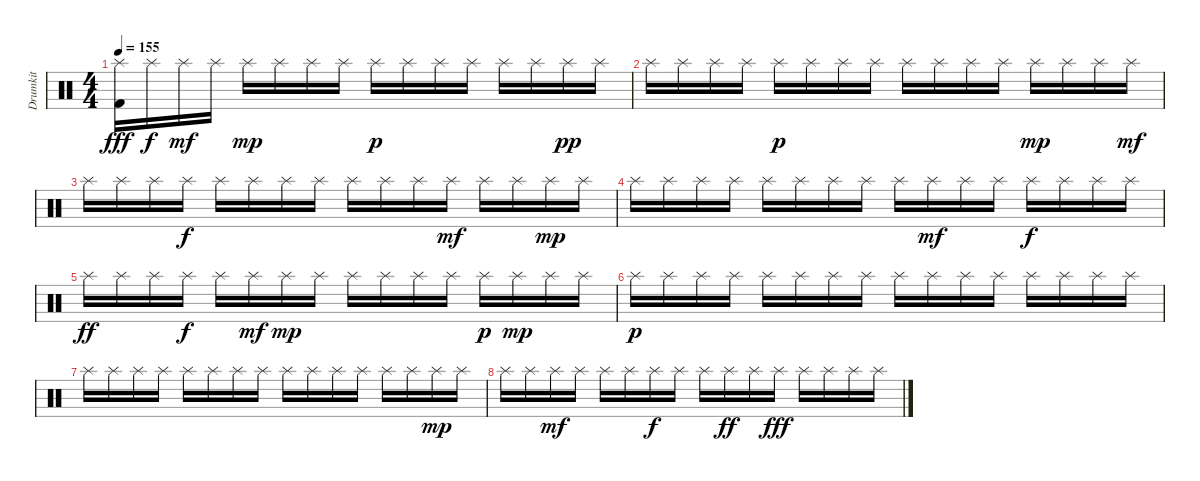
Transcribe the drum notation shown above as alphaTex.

\track ("Drumkit" "Drumkit") {instrument percussion}
\staff {score}
\articulation defaults
\ts (4 4)
\tempo 155
\clef neutral
\ks c
("Kick (hit) 2" "Splash (hit)").16{dy fff} "Splash (hit)".16{dy f} "Splash (hit)".16{dy mf} "Splash (hit)".16 "Splash (hit)".16{dy mp} "Splash (hit)".16 "Splash (hit)".16 "Splash (hit)".16 "Splash (hit)".16{dy p} "Splash (hit)".16 "Splash (hit)".16 "Splash (hit)".16 "Splash (hit)".16 "Splash (hit)".16 "Splash (hit)".16{dy pp} "Splash (hit)".16 |
"Splash (hit)".16 "Splash (hit)".16 "Splash (hit)".16 "Splash (hit)".16 "Splash (hit)".16{dy p} "Splash (hit)".16 "Splash (hit)".16 "Splash (hit)".16 "Splash (hit)".16 "Splash (hit)".16 "Splash (hit)".16 "Splash (hit)".16 "Splash (hit)".16{dy mp} "Splash (hit)".16 "Splash (hit)".16 "Splash (hit)".16{dy mf} |
"Splash (hit)".16 "Splash (hit)".16 "Splash (hit)".16 "Splash (hit)".16{dy f} "Splash (hit)".16 "Splash (hit)".16 "Splash (hit)".16 "Splash (hit)".16 "Splash (hit)".16 "Splash (hit)".16 "Splash (hit)".16 "Splash (hit)".16{dy mf} "Splash (hit)".16 "Splash (hit)".16 "Splash (hit)".16{dy mp} "Splash (hit)".16 |
"Splash (hit)".16 "Splash (hit)".16 "Splash (hit)".16 "Splash (hit)".16 "Splash (hit)".16 "Splash (hit)".16 "Splash (hit)".16 "Splash (hit)".16 "Splash (hit)".16 "Splash (hit)".16{dy mf} "Splash (hit)".16 "Splash (hit)".16 "Splash (hit)".16{dy f} "Splash (hit)".16 "Splash (hit)".16 "Splash (hit)".16 |
"Splash (hit)".16{dy ff} "Splash (hit)".16 "Splash (hit)".16 "Splash (hit)".16{dy f} "Splash (hit)".16 "Splash (hit)".16{dy mf} "Splash (hit)".16{dy mp} "Splash (hit)".16 "Splash (hit)".16 "Splash (hit)".16 "Splash (hit)".16 "Splash (hit)".16 "Splash (hit)".16{dy p} "Splash (hit)".16{dy mp} "Splash (hit)".16 "Splash (hit)".16 |
"Splash (hit)".16{dy p} "Splash (hit)".16 "Splash (hit)".16 "Splash (hit)".16 "Splash (hit)".16 "Splash (hit)".16 "Splash (hit)".16 "Splash (hit)".16 "Splash (hit)".16 "Splash (hit)".16 "Splash (hit)".16 "Splash (hit)".16 "Splash (hit)".16 "Splash (hit)".16 "Splash (hit)".16 "Splash (hit)".16 |
"Splash (hit)".16 "Splash (hit)".16 "Splash (hit)".16 "Splash (hit)".16 "Splash (hit)".16 "Splash (hit)".16 "Splash (hit)".16 "Splash (hit)".16 "Splash (hit)".16 "Splash (hit)".16 "Splash (hit)".16 "Splash (hit)".16 "Splash (hit)".16 "Splash (hit)".16 "Splash (hit)".16{dy mp} "Splash (hit)".16 |
"Splash (hit)".16 "Splash (hit)".16 "Splash (hit)".16{dy mf} "Splash (hit)".16 "Splash (hit)".16 "Splash (hit)".16 "Splash (hit)".16{dy f} "Splash (hit)".16 "Splash (hit)".16 "Splash (hit)".16{dy ff} "Splash (hit)".16 "Splash (hit)".16{dy fff} "Splash (hit)".16 "Splash (hit)".16 "Splash (hit)".16 "Splash (hit)".16
